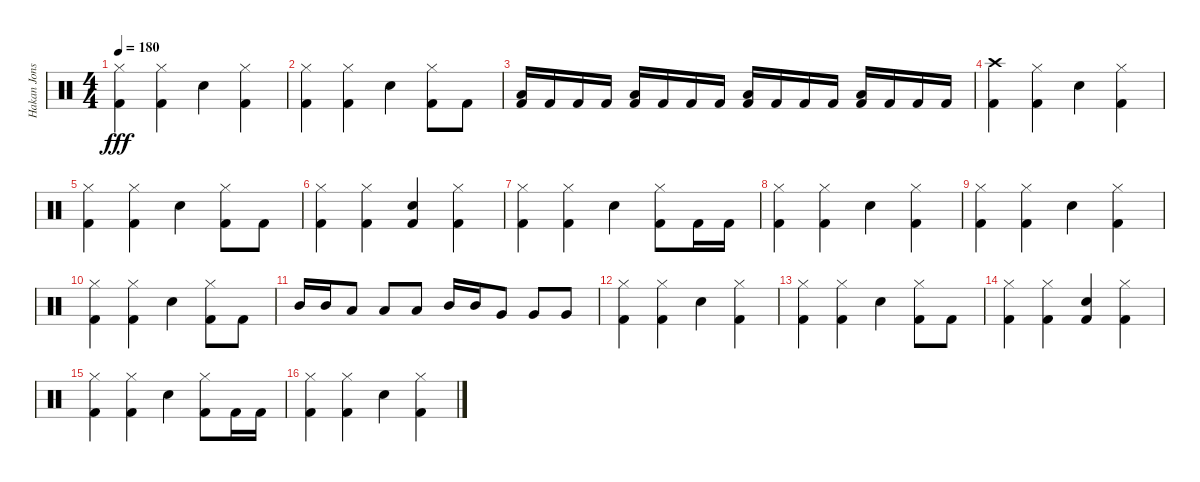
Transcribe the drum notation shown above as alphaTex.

\track ("Hakan Jonsson" "Hakan Jons") {instrument percussion}
\staff {score}
\articulation defaults
\ts (4 4)
\tempo 180
\clef neutral
\ks c
("Hi-Hat (closed)" "Kick (hit) 2").4{dy fff} ("Hi-Hat (closed)" "Kick (hit) 2").4 "Electric Snare (hit)".4 ("Hi-Hat (closed)" "Kick (hit) 2").4 |
("Hi-Hat (closed)" "Kick (hit) 2").4 ("Hi-Hat (closed)" "Kick (hit) 2").4 "Electric Snare (hit)".4 ("Hi-Hat (closed)" "Kick (hit) 2").8 "Kick (hit) 2".8 |
("Low Tom (hit)" "Kick (hit) 2").16 "Kick (hit) 2".16 "Kick (hit) 2".16 "Kick (hit) 2".16 ("Low Tom (hit)" "Kick (hit) 2").16 "Kick (hit) 2".16 "Kick (hit) 2".16 "Kick (hit) 2".16 ("Low Tom (hit)" "Kick (hit) 2").16 "Kick (hit) 2".16 "Kick (hit) 2".16 "Kick (hit) 2".16 ("Low Tom (hit)" "Kick (hit) 2").16 "Kick (hit) 2".16 "Kick (hit) 2".16 "Kick (hit) 2".16 |
("Crash high (hit)" "Kick (hit) 2").4 ("Hi-Hat (closed)" "Kick (hit) 2").4 "Electric Snare (hit)".4 ("Hi-Hat (closed)" "Kick (hit) 2").4 |
("Hi-Hat (closed)" "Kick (hit) 2").4 ("Hi-Hat (closed)" "Kick (hit) 2").4 "Electric Snare (hit)".4 ("Hi-Hat (closed)" "Kick (hit) 2").8 "Kick (hit) 2".8 |
("Hi-Hat (closed)" "Kick (hit) 2").4 ("Hi-Hat (closed)" "Kick (hit) 2").4 ("Electric Snare (hit)" "Kick (hit) 2").4 ("Hi-Hat (closed)" "Kick (hit) 2").4 |
("Hi-Hat (closed)" "Kick (hit) 2").4 ("Hi-Hat (closed)" "Kick (hit) 2").4 "Electric Snare (hit)".4 ("Hi-Hat (closed)" "Kick (hit) 2").8 "Kick (hit) 2".16 "Kick (hit) 2".16 |
("Hi-Hat (closed)" "Kick (hit) 2").4 ("Hi-Hat (closed)" "Kick (hit) 2").4 "Electric Snare (hit)".4 ("Hi-Hat (closed)" "Kick (hit) 2").4 |
("Hi-Hat (closed)" "Kick (hit) 2").4 ("Hi-Hat (closed)" "Kick (hit) 2").4 "Electric Snare (hit)".4 ("Hi-Hat (closed)" "Kick (hit) 2").4 |
("Hi-Hat (closed)" "Kick (hit) 2").4 ("Hi-Hat (closed)" "Kick (hit) 2").4 "Electric Snare (hit)".4 ("Hi-Hat (closed)" "Kick (hit) 2").8 "Kick (hit) 2".8 |
"Mid Tom (hit)".16 "Mid Tom (hit)".16 "Low Tom (hit)".8 "Low Tom (hit)".8 "Low Tom (hit)".8 "Mid Tom (hit)".16 "Mid Tom (hit)".16 "Very Low Tom (hit)".8 "Very Low Tom (hit)".8 "Very Low Tom (hit)".8 |
("Hi-Hat (closed)" "Kick (hit) 2").4 ("Hi-Hat (closed)" "Kick (hit) 2").4 "Electric Snare (hit)".4 ("Hi-Hat (closed)" "Kick (hit) 2").4 |
("Hi-Hat (closed)" "Kick (hit) 2").4 ("Hi-Hat (closed)" "Kick (hit) 2").4 "Electric Snare (hit)".4 ("Hi-Hat (closed)" "Kick (hit) 2").8 "Kick (hit) 2".8 |
("Hi-Hat (closed)" "Kick (hit) 2").4 ("Hi-Hat (closed)" "Kick (hit) 2").4 ("Electric Snare (hit)" "Kick (hit) 2").4 ("Hi-Hat (closed)" "Kick (hit) 2").4 |
("Hi-Hat (closed)" "Kick (hit) 2").4 ("Hi-Hat (closed)" "Kick (hit) 2").4 "Electric Snare (hit)".4 ("Hi-Hat (closed)" "Kick (hit) 2").8 "Kick (hit) 2".16 "Kick (hit) 2".16 |
("Hi-Hat (closed)" "Kick (hit) 2").4 ("Hi-Hat (closed)" "Kick (hit) 2").4 "Electric Snare (hit)".4 ("Hi-Hat (closed)" "Kick (hit) 2").4
